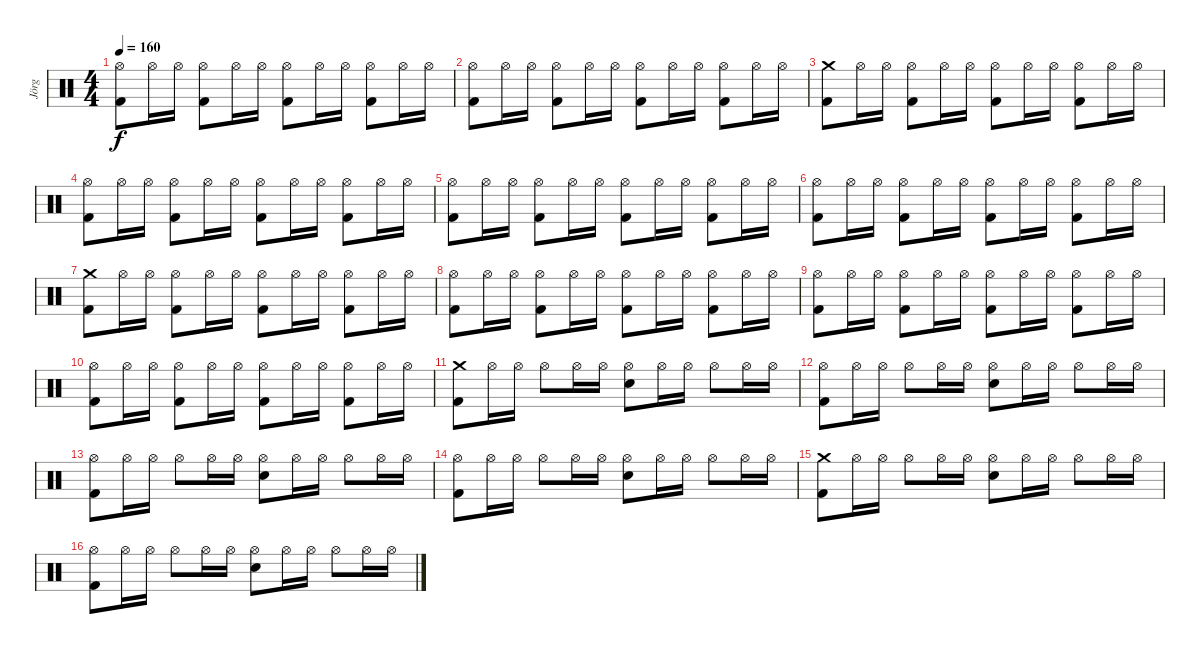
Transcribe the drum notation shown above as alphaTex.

\track ("Jörg" "Jörg") {instrument percussion}
\staff {score}
\articulation defaults
\ts (4 4)
\tempo 160
\clef neutral
\ks c
("Hi-Hat (open)" "Kick (hit) 2").8{dy f} "Hi-Hat (open)".16 "Hi-Hat (open)".16 ("Hi-Hat (open)" "Kick (hit) 2").8 "Hi-Hat (open)".16 "Hi-Hat (open)".16 ("Hi-Hat (open)" "Kick (hit) 2").8 "Hi-Hat (open)".16 "Hi-Hat (open)".16 ("Hi-Hat (open)" "Kick (hit) 2").8 "Hi-Hat (open)".16 "Hi-Hat (open)".16 |
("Hi-Hat (open)" "Kick (hit) 2").8 "Hi-Hat (open)".16 "Hi-Hat (open)".16 ("Hi-Hat (open)" "Kick (hit) 2").8 "Hi-Hat (open)".16 "Hi-Hat (open)".16 ("Hi-Hat (open)" "Kick (hit) 2").8 "Hi-Hat (open)".16 "Hi-Hat (open)".16 ("Hi-Hat (open)" "Kick (hit) 2").8 "Hi-Hat (open)".16 "Hi-Hat (open)".16 |
("Crash medium (hit)" "Kick (hit) 2").8 "Hi-Hat (open)".16 "Hi-Hat (open)".16 ("Hi-Hat (open)" "Kick (hit) 2").8 "Hi-Hat (open)".16 "Hi-Hat (open)".16 ("Hi-Hat (open)" "Kick (hit) 2").8 "Hi-Hat (open)".16 "Hi-Hat (open)".16 ("Hi-Hat (open)" "Kick (hit) 2").8 "Hi-Hat (open)".16 "Hi-Hat (open)".16 |
("Hi-Hat (open)" "Kick (hit) 2").8 "Hi-Hat (open)".16 "Hi-Hat (open)".16 ("Hi-Hat (open)" "Kick (hit) 2").8 "Hi-Hat (open)".16 "Hi-Hat (open)".16 ("Hi-Hat (open)" "Kick (hit) 2").8 "Hi-Hat (open)".16 "Hi-Hat (open)".16 ("Hi-Hat (open)" "Kick (hit) 2").8 "Hi-Hat (open)".16 "Hi-Hat (open)".16 |
("Hi-Hat (open)" "Kick (hit) 2").8 "Hi-Hat (open)".16 "Hi-Hat (open)".16 ("Hi-Hat (open)" "Kick (hit) 2").8 "Hi-Hat (open)".16 "Hi-Hat (open)".16 ("Hi-Hat (open)" "Kick (hit) 2").8 "Hi-Hat (open)".16 "Hi-Hat (open)".16 ("Hi-Hat (open)" "Kick (hit) 2").8 "Hi-Hat (open)".16 "Hi-Hat (open)".16 |
("Hi-Hat (open)" "Kick (hit) 2").8 "Hi-Hat (open)".16 "Hi-Hat (open)".16 ("Hi-Hat (open)" "Kick (hit) 2").8 "Hi-Hat (open)".16 "Hi-Hat (open)".16 ("Hi-Hat (open)" "Kick (hit) 2").8 "Hi-Hat (open)".16 "Hi-Hat (open)".16 ("Hi-Hat (open)" "Kick (hit) 2").8 "Hi-Hat (open)".16 "Hi-Hat (open)".16 |
("Crash medium (hit)" "Kick (hit) 2").8 "Hi-Hat (open)".16 "Hi-Hat (open)".16 ("Hi-Hat (open)" "Kick (hit) 2").8 "Hi-Hat (open)".16 "Hi-Hat (open)".16 ("Hi-Hat (open)" "Kick (hit) 2").8 "Hi-Hat (open)".16 "Hi-Hat (open)".16 ("Hi-Hat (open)" "Kick (hit) 2").8 "Hi-Hat (open)".16 "Hi-Hat (open)".16 |
("Hi-Hat (open)" "Kick (hit) 2").8 "Hi-Hat (open)".16 "Hi-Hat (open)".16 ("Hi-Hat (open)" "Kick (hit) 2").8 "Hi-Hat (open)".16 "Hi-Hat (open)".16 ("Hi-Hat (open)" "Kick (hit) 2").8 "Hi-Hat (open)".16 "Hi-Hat (open)".16 ("Hi-Hat (open)" "Kick (hit) 2").8 "Hi-Hat (open)".16 "Hi-Hat (open)".16 |
("Hi-Hat (open)" "Kick (hit) 2").8 "Hi-Hat (open)".16 "Hi-Hat (open)".16 ("Hi-Hat (open)" "Kick (hit) 2").8 "Hi-Hat (open)".16 "Hi-Hat (open)".16 ("Hi-Hat (open)" "Kick (hit) 2").8 "Hi-Hat (open)".16 "Hi-Hat (open)".16 ("Hi-Hat (open)" "Kick (hit) 2").8 "Hi-Hat (open)".16 "Hi-Hat (open)".16 |
("Hi-Hat (open)" "Kick (hit) 2").8 "Hi-Hat (open)".16 "Hi-Hat (open)".16 ("Hi-Hat (open)" "Kick (hit) 2").8 "Hi-Hat (open)".16 "Hi-Hat (open)".16 ("Hi-Hat (open)" "Kick (hit) 2").8 "Hi-Hat (open)".16 "Hi-Hat (open)".16 ("Hi-Hat (open)" "Kick (hit) 2").8 "Hi-Hat (open)".16 "Hi-Hat (open)".16 |
("Kick (hit) 2" "Crash medium (hit)").8 "Hi-Hat (open)".16 "Hi-Hat (open)".16 "Hi-Hat (open)".8 "Hi-Hat (open)".16 "Hi-Hat (open)".16 ("Snare (hit) 2" "Hi-Hat (open)").8 "Hi-Hat (open)".16 "Hi-Hat (open)".16 "Hi-Hat (open)".8 "Hi-Hat (open)".16 "Hi-Hat (open)".16 |
("Kick (hit) 2" "Hi-Hat (open)").8 "Hi-Hat (open)".16 "Hi-Hat (open)".16 "Hi-Hat (open)".8 "Hi-Hat (open)".16 "Hi-Hat (open)".16 ("Snare (hit) 2" "Hi-Hat (open)").8 "Hi-Hat (open)".16 "Hi-Hat (open)".16 "Hi-Hat (open)".8 "Hi-Hat (open)".16 "Hi-Hat (open)".16 |
("Kick (hit) 2" "Hi-Hat (open)").8 "Hi-Hat (open)".16 "Hi-Hat (open)".16 "Hi-Hat (open)".8 "Hi-Hat (open)".16 "Hi-Hat (open)".16 ("Snare (hit) 2" "Hi-Hat (open)").8 "Hi-Hat (open)".16 "Hi-Hat (open)".16 "Hi-Hat (open)".8 "Hi-Hat (open)".16 "Hi-Hat (open)".16 |
("Kick (hit) 2" "Hi-Hat (open)").8 "Hi-Hat (open)".16 "Hi-Hat (open)".16 "Hi-Hat (open)".8 "Hi-Hat (open)".16 "Hi-Hat (open)".16 ("Snare (hit) 2" "Hi-Hat (open)").8 "Hi-Hat (open)".16 "Hi-Hat (open)".16 "Hi-Hat (open)".8 "Hi-Hat (open)".16 "Hi-Hat (open)".16 |
("Kick (hit) 2" "Crash medium (hit)").8 "Hi-Hat (open)".16 "Hi-Hat (open)".16 "Hi-Hat (open)".8 "Hi-Hat (open)".16 "Hi-Hat (open)".16 ("Snare (hit) 2" "Hi-Hat (open)").8 "Hi-Hat (open)".16 "Hi-Hat (open)".16 "Hi-Hat (open)".8 "Hi-Hat (open)".16 "Hi-Hat (open)".16 |
("Kick (hit) 2" "Hi-Hat (open)").8 "Hi-Hat (open)".16 "Hi-Hat (open)".16 "Hi-Hat (open)".8 "Hi-Hat (open)".16 "Hi-Hat (open)".16 ("Snare (hit) 2" "Hi-Hat (open)").8 "Hi-Hat (open)".16 "Hi-Hat (open)".16 "Hi-Hat (open)".8 "Hi-Hat (open)".16 "Hi-Hat (open)".16
